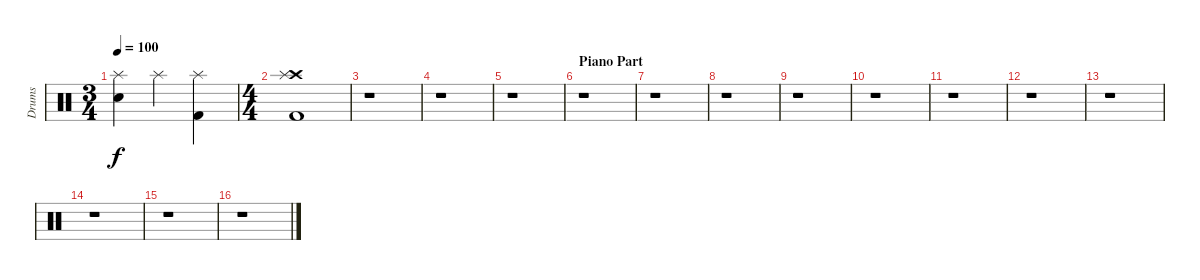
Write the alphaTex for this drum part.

\track ("Drums" "Drums") {instrument percussion}
\staff {score}
\articulation defaults
\ts (3 4)
\tempo 100
\clef neutral
\ks c
("Splash (hit)" "Electric Snare (hit)").4{dy f} "Splash (hit)".4 ("Splash (hit)" "Kick (hit) 2").4 |
\ts (4 4)
("Crash high (hit)" "Splash (hit)" "Kick (hit) 2").1 |
r.1 |
r.1 |
r.1 |
\section ("" "Piano Part")
r.1 |
r.1 |
r.1 |
r.1 |
r.1 |
r.1 |
r.1 |
r.1 |
r.1 |
r.1 |
r.1
